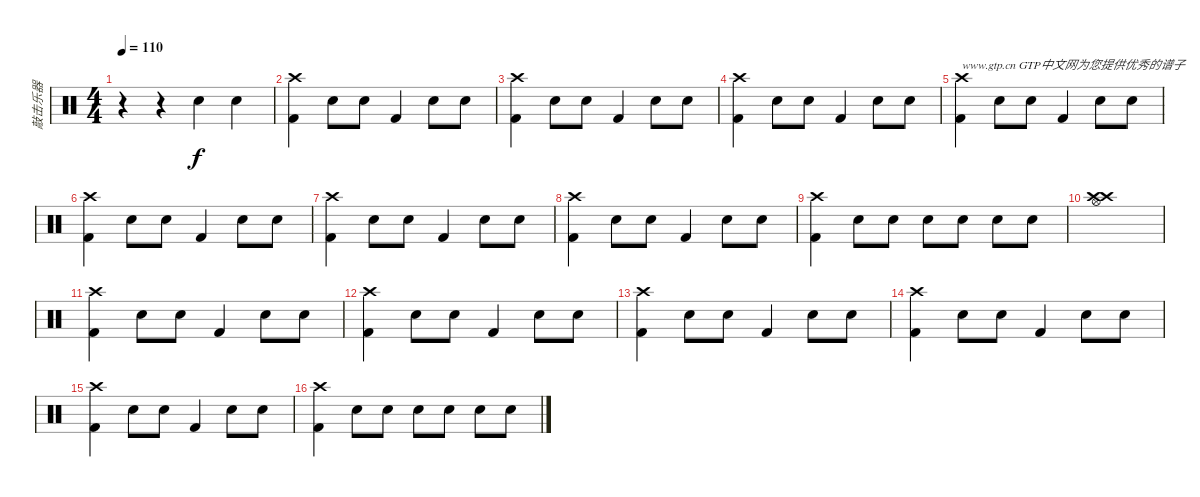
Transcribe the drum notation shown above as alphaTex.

\track ("敲击乐器" "敲击乐器") {instrument percussion}
\staff {score}
\articulation defaults
\ts (4 4)
\tempo 110
\clef neutral
\ks c
r.4{dy f} r.4 "Snare (hit) 2".4 "Snare (hit) 2".4 |
("Kick (hit) 2" "Crash high (hit)").4 "Snare (hit) 2".8 "Snare (hit) 2".8 "Kick (hit) 2".4 "Snare (hit) 2".8 "Snare (hit) 2".8 |
("Kick (hit) 2" "Crash high (hit)").4 "Snare (hit) 2".8 "Snare (hit) 2".8 "Kick (hit) 2".4 "Snare (hit) 2".8 "Snare (hit) 2".8 |
("Kick (hit) 2" "Crash high (hit)").4 "Snare (hit) 2".8 "Snare (hit) 2".8 "Kick (hit) 2".4 "Snare (hit) 2".8 "Snare (hit) 2".8 |
("Kick (hit) 2" "Crash high (hit)").4{txt "www.gtp.cn GTP中文网为您提供优秀的谱子"} "Snare (hit) 2".8 "Snare (hit) 2".8 "Kick (hit) 2".4 "Snare (hit) 2".8 "Snare (hit) 2".8 |
("Kick (hit) 2" "Crash high (hit)").4 "Snare (hit) 2".8 "Snare (hit) 2".8 "Kick (hit) 2".4 "Snare (hit) 2".8 "Snare (hit) 2".8 |
("Kick (hit) 2" "Crash high (hit)").4 "Snare (hit) 2".8 "Snare (hit) 2".8 "Kick (hit) 2".4 "Snare (hit) 2".8 "Snare (hit) 2".8 |
("Kick (hit) 2" "Crash high (hit)").4 "Snare (hit) 2".8 "Snare (hit) 2".8 "Kick (hit) 2".4 "Snare (hit) 2".8 "Snare (hit) 2".8 |
("Kick (hit) 2" "Crash high (hit)").4 "Snare (hit) 2".8 "Snare (hit) 2".8 "Snare (hit) 2".8 "Snare (hit) 2".8 "Snare (hit) 2".8 "Snare (hit) 2".8 |
("Crash high (hit)" "Crash high (hit)" "Hi-Hat (open)").1 |
("Kick (hit) 2" "Crash high (hit)").4 "Snare (hit) 2".8 "Snare (hit) 2".8 "Kick (hit) 2".4 "Snare (hit) 2".8 "Snare (hit) 2".8 |
("Kick (hit) 2" "Crash high (hit)").4 "Snare (hit) 2".8 "Snare (hit) 2".8 "Kick (hit) 2".4 "Snare (hit) 2".8 "Snare (hit) 2".8 |
("Kick (hit) 2" "Crash high (hit)").4 "Snare (hit) 2".8 "Snare (hit) 2".8 "Kick (hit) 2".4 "Snare (hit) 2".8 "Snare (hit) 2".8 |
("Kick (hit) 2" "Crash high (hit)").4 "Snare (hit) 2".8 "Snare (hit) 2".8 "Kick (hit) 2".4 "Snare (hit) 2".8 "Snare (hit) 2".8 |
("Kick (hit) 2" "Crash high (hit)").4 "Snare (hit) 2".8 "Snare (hit) 2".8 "Kick (hit) 2".4 "Snare (hit) 2".8 "Snare (hit) 2".8 |
("Kick (hit) 2" "Crash high (hit)").4 "Snare (hit) 2".8 "Snare (hit) 2".8 "Snare (hit) 2".8 "Snare (hit) 2".8 "Snare (hit) 2".8 "Snare (hit) 2".8
